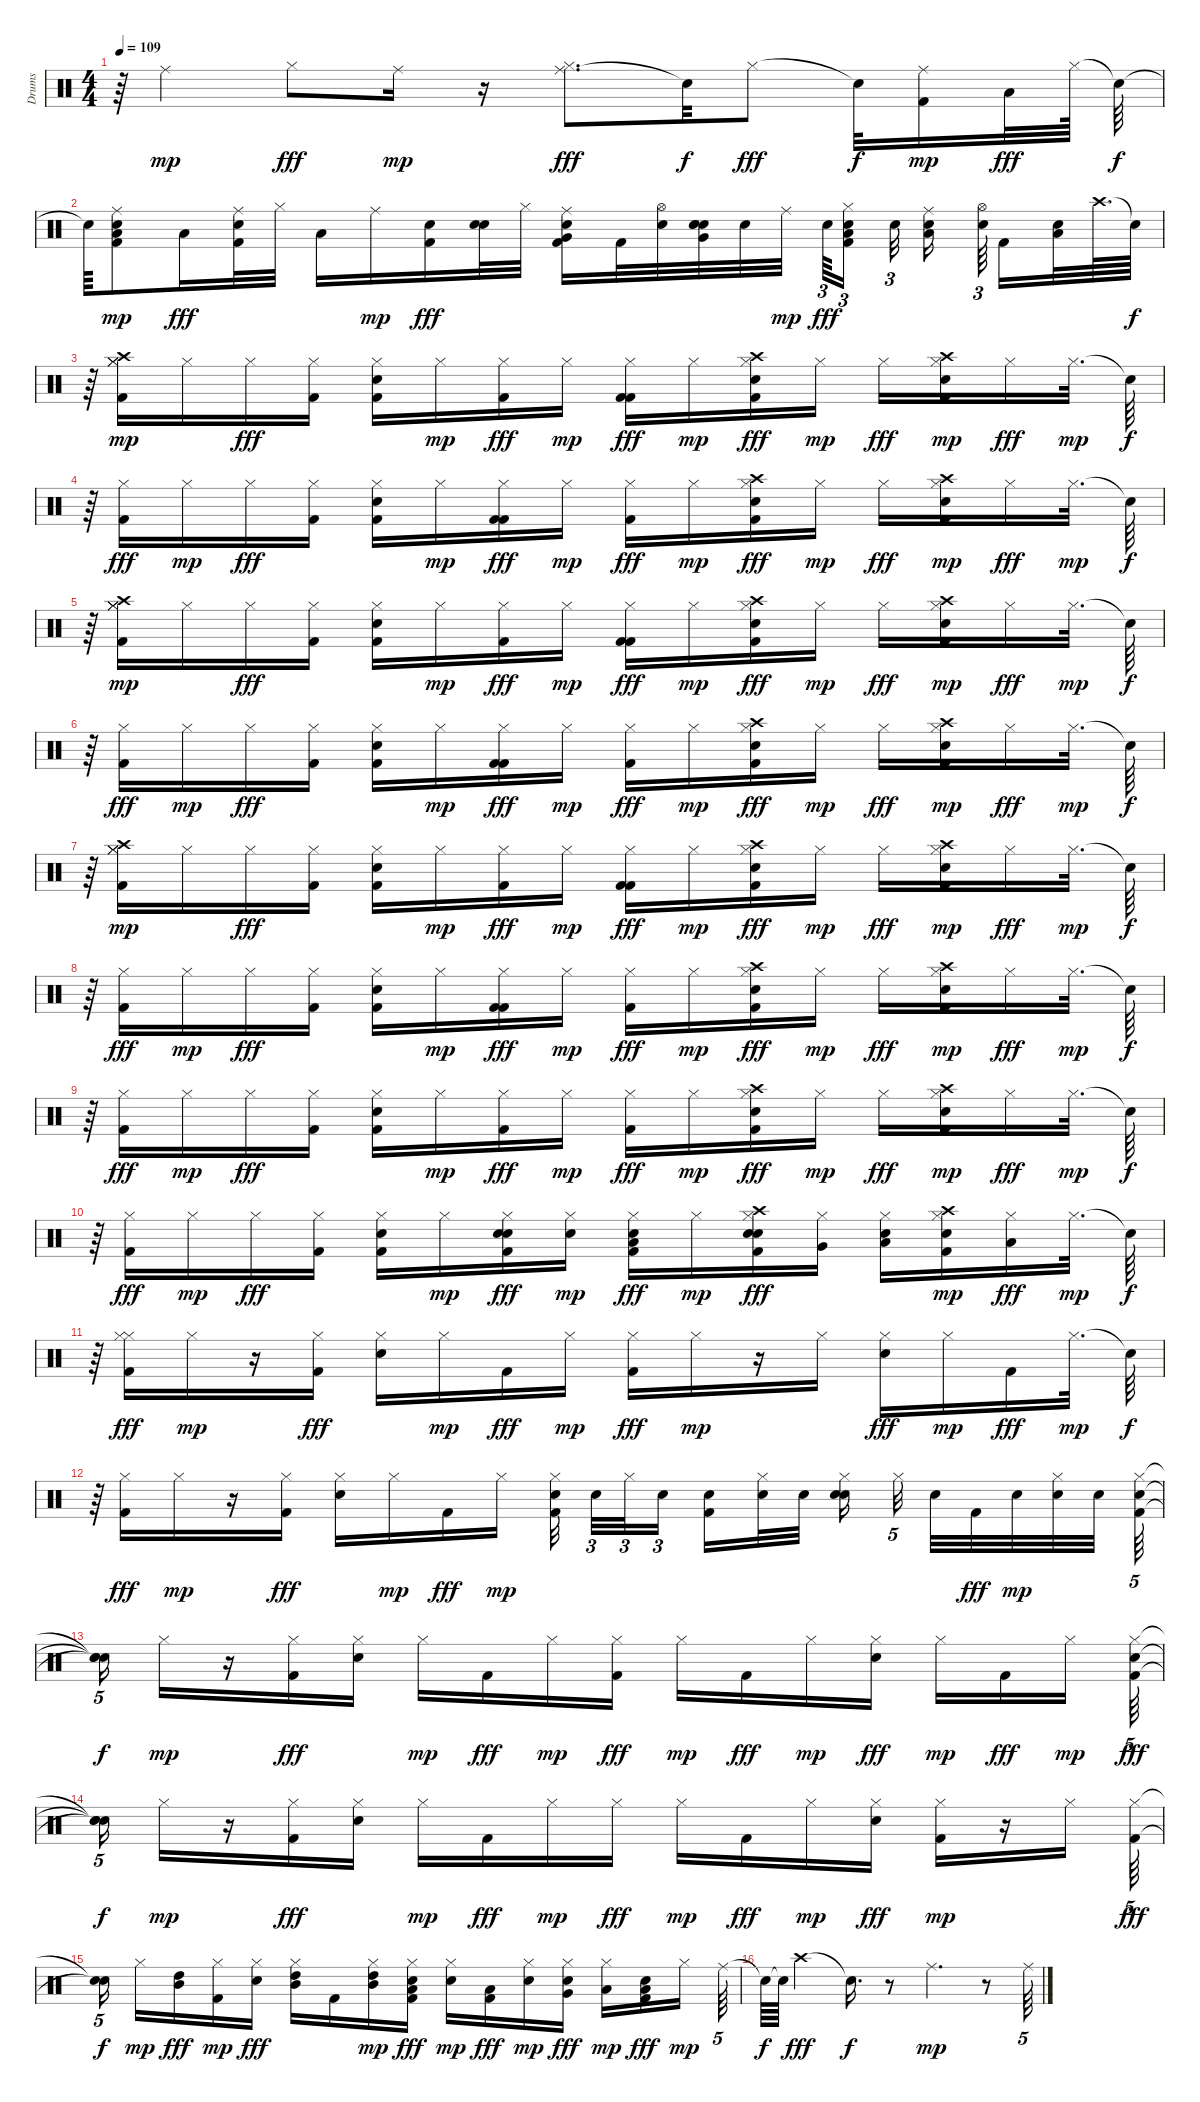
\track ("Drums" "Drums") {instrument percussion}
\staff {score}
\articulation defaults
\ts (4 4)
\tempo 109
\clef neutral
\ks c
r.64{dy mp} "Ride (middle)".4 "Hi-Hat (closed)".8{dy fff} "Ride (middle)".16{dy mp} r.16 ("Ride (middle)" "Hi-Hat (closed)").8{d dy fff} "Snare (hit)"{t}.32{dy f} "Hi-Hat (closed)".8{dy fff} "Snare (hit)"{t}.32{dy f} ("Kick (hit) 2" "Ride (middle)").16{dy mp} "Low Tom (hit)".32{dy fff} "Hi-Hat (closed)".64 "Snare (hit)"{t}.64{dy f} |
"Snare (hit)"{t}.64 ("Low Tom (hit)" "Kick (hit) 2" "Snare (hit) 2" "Ride (middle)").8{dy mp} "Low Tom (hit)".16{dy fff} ("Ride (middle)" "Kick (hit) 2" "Snare (hit) 2").32 "Hi-Hat (closed)".32 "Low Tom (hit)".16 "Ride (middle)".16{dy mp} ("Kick (hit) 2" "Snare (hit) 2").16{dy fff} ("Snare (hit) 2" "Snare (hit) 2").32 "Hi-Hat (closed)".32 ("Kick (hit) 2" "Very Low Tom (hit)" "Ride (middle)" "Snare (hit) 2").16 "Kick (hit) 2".32 ("Snare (hit) 2" "Hi-Hat (open)").32 ("Very Low Tom (hit)" "Snare (hit) 2" "Hand Clap (hit)" "Snare (hit) 2").32 "Snare (hit) 2".32 "Ride (middle)".32{dy mp beam splitsecondary} "Snare (hit) 2".64{tu (3 2) dy fff} ("Hi-Hat (closed)" "Kick (hit) 2" "Low Floor Tom (hit)" "Snare (hit) 2").16{tu (3 2)} "Snare (hit) 2".32{tu (3 2) beam splitsecondary} ("Low Floor Tom (hit)" "Ride (middle)" "Snare (hit) 2").16{beam splitsecondary} ("Snare (hit) 2" "Hi-Hat (open)").64{tu (3 2) beam splitsecondary} "Kick (hit) 2".16 ("Snare (hit) 2" "Low Floor Tom (hit)").32 "Crash high (hit)".64{d} "Snare (hit)"{t}.64{dy f} |
r.64 ("Crash high (hit)" "Kick (hit) 2" "Hi-Hat (closed)" "Hi-Hat (closed)" "Hi-Hat (closed)").16{dy mp} "Hi-Hat (closed)".16 "Hi-Hat (closed)".16{dy fff} ("Hi-Hat (closed)" "Kick (hit) 2").16 ("Snare (hit) 2" "Kick (hit) 2" "Hi-Hat (closed)").16 "Hi-Hat (closed)".16{dy mp} ("Kick (hit) 2" "Hi-Hat (closed)").16{dy fff} "Hi-Hat (closed)".16{dy mp} ("Kick (hit) 2" "Kick (hit) 2" "Hi-Hat (closed)").16{dy fff} "Hi-Hat (closed)".16{dy mp} ("Crash high (hit)" "Snare (hit) 2" "Kick (hit) 2" "Hi-Hat (closed)").16{dy fff} "Hi-Hat (closed)".16{dy mp} "Hi-Hat (closed)".16{dy fff} ("Crash high (hit)" "Snare (hit) 2" "Kick (hit) 2" "Hi-Hat (closed)").16{dy mp} "Hi-Hat (closed)".16{dy fff} "Hi-Hat (closed)".32{d dy mp} "Snare (hit)"{t}.64{dy f} |
r.64 ("Kick (hit) 2" "Hi-Hat (closed)").16{dy fff} "Hi-Hat (closed)".16{dy mp} "Hi-Hat (closed)".16{dy fff} ("Hi-Hat (closed)" "Kick (hit) 2").16 ("Snare (hit) 2" "Kick (hit) 2" "Hi-Hat (closed)").16 "Hi-Hat (closed)".16{dy mp} ("Kick (hit) 2" "Kick (hit) 2" "Hi-Hat (closed)").16{dy fff} "Hi-Hat (closed)".16{dy mp} ("Kick (hit) 2" "Hi-Hat (closed)").16{dy fff} "Hi-Hat (closed)".16{dy mp} ("Hi-Hat (closed)" "Crash high (hit)" "Snare (hit) 2" "Kick (hit) 2").16{dy fff} "Hi-Hat (closed)".16{dy mp} "Hi-Hat (closed)".16{dy fff} ("Kick (hit) 2" "Crash high (hit)" "Snare (hit) 2" "Hi-Hat (closed)").16{dy mp} "Hi-Hat (closed)".16{dy fff} "Hi-Hat (closed)".32{d dy mp} "Snare (hit)"{t}.64{dy f} |
r.64 ("Crash high (hit)" "Kick (hit) 2" "Hi-Hat (closed)" "Hi-Hat (closed)" "Hi-Hat (closed)").16{dy mp} "Hi-Hat (closed)".16 "Hi-Hat (closed)".16{dy fff} ("Hi-Hat (closed)" "Kick (hit) 2").16 ("Snare (hit) 2" "Kick (hit) 2" "Hi-Hat (closed)").16 "Hi-Hat (closed)".16{dy mp} ("Kick (hit) 2" "Hi-Hat (closed)").16{dy fff} "Hi-Hat (closed)".16{dy mp} ("Kick (hit) 2" "Kick (hit) 2" "Hi-Hat (closed)").16{dy fff} "Hi-Hat (closed)".16{dy mp} ("Crash high (hit)" "Snare (hit) 2" "Kick (hit) 2" "Hi-Hat (closed)").16{dy fff} "Hi-Hat (closed)".16{dy mp} "Hi-Hat (closed)".16{dy fff} ("Crash high (hit)" "Snare (hit) 2" "Kick (hit) 2" "Hi-Hat (closed)").16{dy mp} "Hi-Hat (closed)".16{dy fff} "Hi-Hat (closed)".32{d dy mp} "Snare (hit)"{t}.64{dy f} |
r.64 ("Kick (hit) 2" "Hi-Hat (closed)").16{dy fff} "Hi-Hat (closed)".16{dy mp} "Hi-Hat (closed)".16{dy fff} ("Hi-Hat (closed)" "Kick (hit) 2").16 ("Snare (hit) 2" "Kick (hit) 2" "Hi-Hat (closed)").16 "Hi-Hat (closed)".16{dy mp} ("Kick (hit) 2" "Kick (hit) 2" "Hi-Hat (closed)").16{dy fff} "Hi-Hat (closed)".16{dy mp} ("Kick (hit) 2" "Hi-Hat (closed)").16{dy fff} "Hi-Hat (closed)".16{dy mp} ("Hi-Hat (closed)" "Crash high (hit)" "Snare (hit) 2" "Kick (hit) 2").16{dy fff} "Hi-Hat (closed)".16{dy mp} "Hi-Hat (closed)".16{dy fff} ("Kick (hit) 2" "Crash high (hit)" "Snare (hit) 2" "Hi-Hat (closed)").16{dy mp} "Hi-Hat (closed)".16{dy fff} "Hi-Hat (closed)".32{d dy mp} "Snare (hit)"{t}.64{dy f} |
r.64 ("Crash high (hit)" "Kick (hit) 2" "Hi-Hat (closed)" "Hi-Hat (closed)" "Hi-Hat (closed)").16{dy mp} "Hi-Hat (closed)".16 "Hi-Hat (closed)".16{dy fff} ("Hi-Hat (closed)" "Kick (hit) 2").16 ("Snare (hit) 2" "Kick (hit) 2" "Hi-Hat (closed)").16 "Hi-Hat (closed)".16{dy mp} ("Kick (hit) 2" "Hi-Hat (closed)").16{dy fff} "Hi-Hat (closed)".16{dy mp} ("Kick (hit) 2" "Kick (hit) 2" "Hi-Hat (closed)").16{dy fff} "Hi-Hat (closed)".16{dy mp} ("Crash high (hit)" "Snare (hit) 2" "Kick (hit) 2" "Hi-Hat (closed)").16{dy fff} "Hi-Hat (closed)".16{dy mp} "Hi-Hat (closed)".16{dy fff} ("Crash high (hit)" "Snare (hit) 2" "Kick (hit) 2" "Hi-Hat (closed)").16{dy mp} "Hi-Hat (closed)".16{dy fff} "Hi-Hat (closed)".32{d dy mp} "Snare (hit)"{t}.64{dy f} |
r.64 ("Kick (hit) 2" "Hi-Hat (closed)").16{dy fff} "Hi-Hat (closed)".16{dy mp} "Hi-Hat (closed)".16{dy fff} ("Hi-Hat (closed)" "Kick (hit) 2").16 ("Snare (hit) 2" "Kick (hit) 2" "Hi-Hat (closed)").16 "Hi-Hat (closed)".16{dy mp} ("Kick (hit) 2" "Kick (hit) 2" "Hi-Hat (closed)").16{dy fff} "Hi-Hat (closed)".16{dy mp} ("Kick (hit) 2" "Hi-Hat (closed)").16{dy fff} "Hi-Hat (closed)".16{dy mp} ("Hi-Hat (closed)" "Crash high (hit)" "Snare (hit) 2" "Kick (hit) 2").16{dy fff} "Hi-Hat (closed)".16{dy mp} "Hi-Hat (closed)".16{dy fff} ("Kick (hit) 2" "Crash high (hit)" "Snare (hit) 2" "Hi-Hat (closed)").16{dy mp} "Hi-Hat (closed)".16{dy fff} "Hi-Hat (closed)".32{d dy mp} "Snare (hit)"{t}.64{dy f} |
r.64 ("Kick (hit) 2" "Hi-Hat (closed)").16{dy fff} "Hi-Hat (closed)".16{dy mp} "Hi-Hat (closed)".16{dy fff} ("Hi-Hat (closed)" "Kick (hit) 2").16 ("Hi-Hat (closed)" "Snare (hit) 2" "Kick (hit) 2").16 "Hi-Hat (closed)".16{dy mp} ("Kick (hit) 2" "Hi-Hat (closed)").16{dy fff} "Hi-Hat (closed)".16{dy mp} ("Hi-Hat (closed)" "Kick (hit) 2").16{dy fff} "Hi-Hat (closed)".16{dy mp} ("Hi-Hat (closed)" "Crash high (hit)" "Kick (hit) 2" "Snare (hit) 2").16{dy fff} "Hi-Hat (closed)".16{dy mp} "Hi-Hat (closed)".16{dy fff} ("Crash high (hit)" "Kick (hit) 2" "Snare (hit) 2" "Hi-Hat (closed)").16{dy mp} "Hi-Hat (closed)".16{dy fff} "Hi-Hat (closed)".32{d dy mp} "Snare (hit)"{t}.64{dy f} |
r.64 ("Kick (hit) 2" "Hi-Hat (closed)").16{dy fff} "Hi-Hat (closed)".16{dy mp} "Hi-Hat (closed)".16{dy fff} ("Hi-Hat (closed)" "Kick (hit) 2").16 ("Hi-Hat (closed)" "Snare (hit) 2" "Kick (hit) 2").16 "Hi-Hat (closed)".16{dy mp} ("Hi-Hat (closed)" "Kick (hit) 2" "Snare (hit) 2" "Snare (hit) 2").16{dy fff} ("Hi-Hat (closed)" "Snare (hit) 2").16{dy mp} ("Snare (hit) 2" "Hi-Hat (closed)" "Kick (hit) 2" "Low Tom (hit)").16{dy fff} "Hi-Hat (closed)".16{dy mp} ("Snare (hit) 2" "Hi-Hat (closed)" "Crash high (hit)" "Snare (hit) 2" "Kick (hit) 2").16{dy fff} ("Hi-Hat (closed)" "Very Low Tom (hit)").16 ("Snare (hit) 2" "Hi-Hat (closed)" "Low Floor Tom (hit)").16 ("Kick (hit) 2" "Crash high (hit)" "Snare (hit) 2" "Hi-Hat (closed)").16{dy mp} ("Hi-Hat (closed)" "Low Floor Tom (hit)").16{dy fff} "Hi-Hat (closed)".32{d dy mp} "Snare (hit)"{t}.64{dy f} |
r.64 ("Kick (hit) 2" "Hi-Hat (closed)" "Hi-Hat (closed)").16{dy fff} "Hi-Hat (closed)".16{dy mp} r.16 ("Hi-Hat (closed)" "Kick (hit) 2").16{dy fff} ("Hi-Hat (closed)" "Snare (hit) 2").16 "Hi-Hat (closed)".16{dy mp} "Kick (hit) 2".16{dy fff} "Hi-Hat (closed)".16{dy mp} ("Hi-Hat (closed)" "Kick (hit) 2").16{dy fff} "Hi-Hat (closed)".16{dy mp} r.16 "Hi-Hat (closed)".16 ("Snare (hit) 2" "Hi-Hat (closed)").16{dy fff} "Hi-Hat (closed)".16{dy mp} "Kick (hit) 2".16{dy fff} "Hi-Hat (closed)".32{d dy mp} "Snare (hit)"{t}.64{dy f} |
r.64 ("Hi-Hat (closed)" "Kick (hit) 2").16{dy fff} "Hi-Hat (closed)".16{dy mp} r.16 ("Hi-Hat (closed)" "Kick (hit) 2").16{dy fff} ("Hi-Hat (closed)" "Snare (hit) 2").16 "Hi-Hat (closed)".16{dy mp} "Kick (hit) 2".16{dy fff} "Hi-Hat (closed)".16{dy mp} ("Hi-Hat (closed)" "Kick (hit) 2" "Snare (hit) 2").32{beam splitsecondary} "Snare (hit) 2".32{tu (3 2)} "Hi-Hat (closed)".32{tu (3 2)} "Snare (hit) 2".16{tu (3 2) beam splitsecondary} ("Kick (hit) 2" "Snare (hit) 2").16 ("Snare (hit) 2" "Hi-Hat (closed)").32 "Snare (hit) 2".32 ("Hi-Hat (closed)" "Snare (hit) 2" "Snare (hit) 2").16{beam splitsecondary} "Hi-Hat (closed)".32{tu (5 4) beam splitsecondary} "Snare (hit) 2".32 "Kick (hit) 2".32{dy fff} "Snare (hit) 2".32{dy mp} ("Snare (hit) 2" "Hi-Hat (closed)").32 "Snare (hit) 2".32{beam splitsecondary} ("Kick (hit) 2" "Hi-Hat (closed)" "Snare (hit) 2").64{tu (5 4)} |
("Snare (hit)"{t} "Snare (hit)"{t} "Snare (hit)"{t}).16{tu (5 4) dy f} "Hi-Hat (closed)".16{dy mp} r.16 ("Hi-Hat (closed)" "Kick (hit) 2").16{dy fff} ("Hi-Hat (closed)" "Snare (hit) 2").16 "Hi-Hat (closed)".16{dy mp} "Kick (hit) 2".16{dy fff} "Hi-Hat (closed)".16{dy mp} ("Hi-Hat (closed)" "Kick (hit) 2").16{dy fff} "Hi-Hat (closed)".16{dy mp} "Kick (hit) 2".16{dy fff} "Hi-Hat (closed)".16{dy mp} ("Hi-Hat (closed)" "Snare (hit) 2").16{dy fff} "Hi-Hat (closed)".16{dy mp} "Kick (hit) 2".16{dy fff} "Hi-Hat (closed)".16{dy mp beam splitsecondary} ("Hi-Hat (closed)" "Kick (hit) 2" "Metronome (bell)").64{tu (5 4) dy fff} |
("Snare (hit)"{t} "Snare (hit)"{t} "Snare (hit)"{t}).16{tu (5 4) dy f} "Hi-Hat (closed)".16{dy mp} r.16 ("Hi-Hat (closed)" "Kick (hit) 2").16{dy fff} ("Hi-Hat (closed)" "Snare (hit) 2").16 "Hi-Hat (closed)".16{dy mp} "Kick (hit) 2".16{dy fff} "Hi-Hat (closed)".16{dy mp} "Hi-Hat (closed)".16{dy fff} "Hi-Hat (closed)".16{dy mp} "Kick (hit) 2".16{dy fff} "Hi-Hat (closed)".16{dy mp} ("Snare (hit) 2" "Hi-Hat (closed)").16{dy fff} ("Kick (hit) 2" "Hi-Hat (closed)").16{dy mp} r.16 "Hi-Hat (closed)".16 ("Kick (hit) 2" "Hi-Hat (closed)").64{tu (5 4) dy fff} |
("Snare (hit)"{t} "Snare (hit)"{t}).16{tu (5 4) dy f beam splitsecondary} "Hi-Hat (closed)".16{dy mp} ("High Tom (hit)" "Mid Tom (hit)").16{dy fff} ("Kick (hit) 2" "Hi-Hat (closed)").16{dy mp} ("Hi-Hat (closed)" "Snare (hit) 2").16{dy fff} ("High Tom (hit)" "Hi-Hat (closed)" "Mid Tom (hit)").16 "Kick (hit) 2".16 ("Mid Tom (hit)" "High Tom (hit)" "Hi-Hat (closed)").16{dy mp} ("Low Tom (hit)" "Kick (hit) 2" "Snare (hit) 2" "Hi-Hat (closed)").16{dy fff} ("Snare (hit) 2" "Hi-Hat (closed)").16{dy mp} ("Low Tom (hit)" "Kick (hit) 2").16{dy fff} ("Snare (hit) 2" "Hi-Hat (closed)").16{dy mp} ("Very Low Tom (hit)" "Snare (hit) 2" "Hi-Hat (closed)").16{dy fff} ("Low Floor Tom (hit)" "Hi-Hat (closed)").16{dy mp} ("Low Floor Tom (hit)" "Kick (hit) 2" "Snare (hit) 2").16{dy fff} "Hi-Hat (closed)".16{dy mp beam splitsecondary} "Ride (middle)".64{tu (5 4)} |
"Snare (hit)"{t}.64{dy f} "Snare (hit)"{t}.64 "Crash high (hit)".4{dy fff} "Snare (hit)"{t}.16{d dy f} r.8 "Ride (middle)".4{d dy mp} r.8 "Ride (middle)".64{tu (5 4)}
